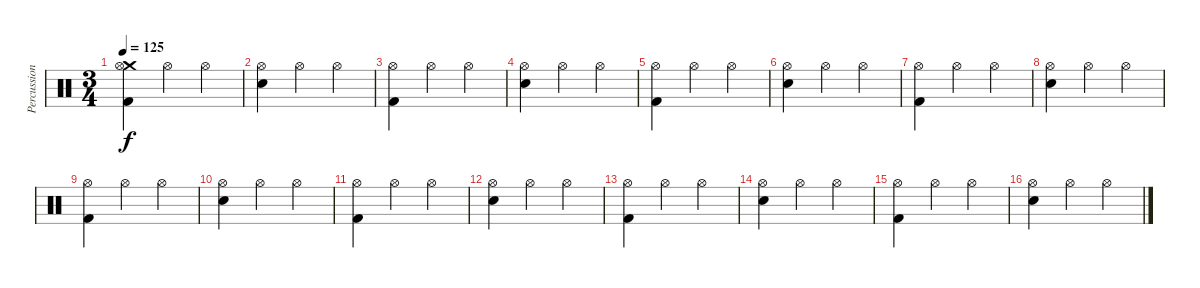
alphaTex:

\track ("Percussion" "Percussion") {instrument percussion}
\staff {score}
\articulation defaults
\ts (3 4)
\tempo 125
\clef neutral
\ks c
("Crash medium (hit)" "Hi-Hat (open)" "Kick (hit) 2").4{dy f} "Hi-Hat (open)".4 "Hi-Hat (open)".4 |
("Hi-Hat (open)" "Electric Snare (hit)").4 "Hi-Hat (open)".4 "Hi-Hat (open)".4 |
("Hi-Hat (open)" "Kick (hit) 2").4 "Hi-Hat (open)".4 "Hi-Hat (open)".4 |
("Hi-Hat (open)" "Electric Snare (hit)").4 "Hi-Hat (open)".4 "Hi-Hat (open)".4 |
("Hi-Hat (open)" "Kick (hit) 2").4 "Hi-Hat (open)".4 "Hi-Hat (open)".4 |
("Hi-Hat (open)" "Electric Snare (hit)").4 "Hi-Hat (open)".4 "Hi-Hat (open)".4 |
("Hi-Hat (open)" "Kick (hit) 2").4 "Hi-Hat (open)".4 "Hi-Hat (open)".4 |
("Hi-Hat (open)" "Electric Snare (hit)").4 "Hi-Hat (open)".4 "Hi-Hat (open)".4 |
("Hi-Hat (open)" "Kick (hit) 2").4 "Hi-Hat (open)".4 "Hi-Hat (open)".4 |
("Hi-Hat (open)" "Electric Snare (hit)").4 "Hi-Hat (open)".4 "Hi-Hat (open)".4 |
("Hi-Hat (open)" "Kick (hit) 2").4 "Hi-Hat (open)".4 "Hi-Hat (open)".4 |
("Hi-Hat (open)" "Electric Snare (hit)").4 "Hi-Hat (open)".4 "Hi-Hat (open)".4 |
("Hi-Hat (open)" "Kick (hit) 2").4 "Hi-Hat (open)".4 "Hi-Hat (open)".4 |
("Hi-Hat (open)" "Electric Snare (hit)").4 "Hi-Hat (open)".4 "Hi-Hat (open)".4 |
("Hi-Hat (open)" "Kick (hit) 2").4 "Hi-Hat (open)".4 "Hi-Hat (open)".4 |
("Hi-Hat (open)" "Electric Snare (hit)").4 "Hi-Hat (open)".4 "Hi-Hat (open)".4
